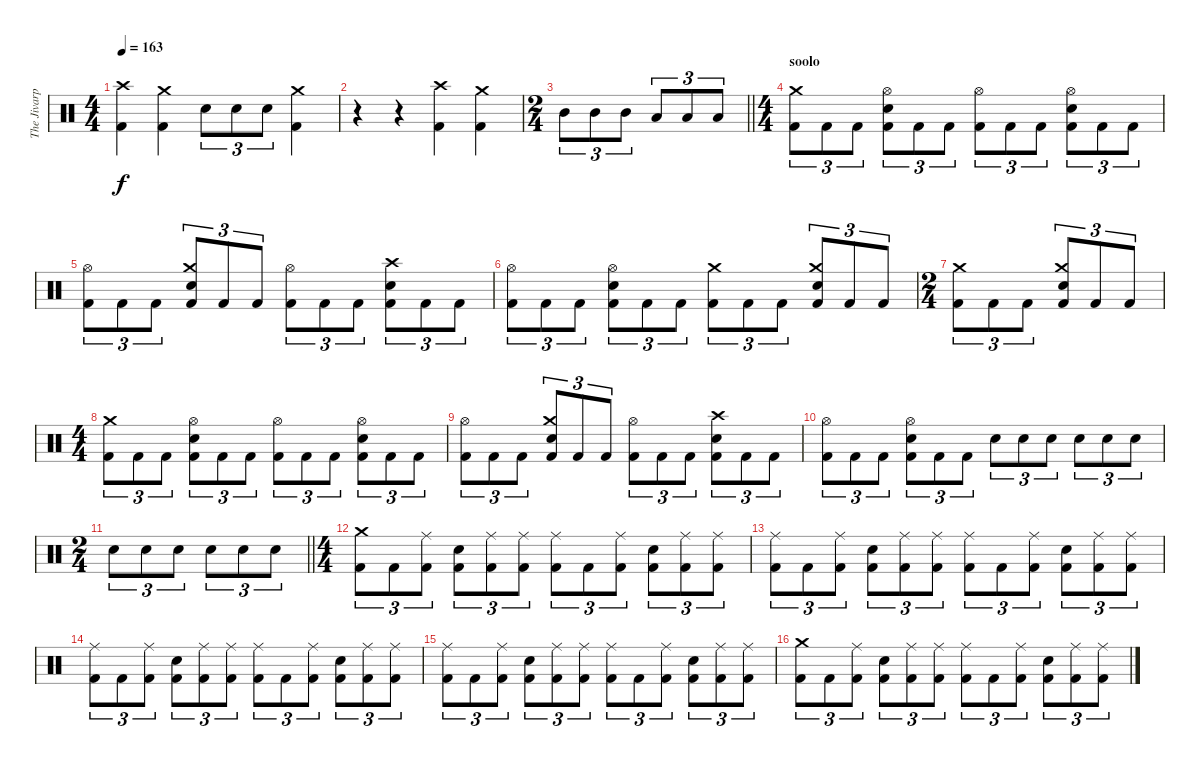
\track ("The Jivarp" "The Jivarp") {instrument percussion}
\staff {score}
\articulation defaults
\ts (4 4)
\tempo 163
\clef neutral
\ks c
("Crash high (hit)" "Kick (hit) 2").4{dy f} ("Crash medium (hit)" "Kick (hit) 2").4 "Electric Snare (hit)".8{tu (3 2)} "Electric Snare (hit)".8{tu (3 2)} "Electric Snare (hit)".8{tu (3 2)} ("Crash medium (hit)" "Kick (hit) 2").4 |
r.4 r.4 ("Crash high (hit)" "Kick (hit) 2").4 ("Crash medium (hit)" "Kick (hit) 2").4 |
\ts (2 4)
\barLineRight lightlight "Mid Tom (hit)".8{tu (3 2)} "Mid Tom (hit)".8{tu (3 2)} "Mid Tom (hit)".8{tu (3 2)} "Low Tom (hit)".8{tu (3 2)} "Low Tom (hit)".8{tu (3 2)} "Low Tom (hit)".8{tu (3 2)}
|
\ts (4 4)
\section ("" "soolo")
("Crash medium (hit)" "Kick (hit) 2").8{tu (3 2)} "Kick (hit) 2".8{tu (3 2)} "Kick (hit) 2".8{tu (3 2)} ("Hi-Hat (open)" "Electric Snare (hit)" "Kick (hit) 2").8{tu (3 2)} "Kick (hit) 2".8{tu (3 2)} "Kick (hit) 2".8{tu (3 2)} ("Hi-Hat (open)" "Kick (hit) 2").8{tu (3 2)} "Kick (hit) 2".8{tu (3 2)} "Kick (hit) 2".8{tu (3 2)} ("Hi-Hat (open)" "Electric Snare (hit)" "Kick (hit) 2").8{tu (3 2)} "Kick (hit) 2".8{tu (3 2)} "Kick (hit) 2".8{tu (3 2)} |
("Hi-Hat (open)" "Kick (hit) 2").8{tu (3 2)} "Kick (hit) 2".8{tu (3 2)} "Kick (hit) 2".8{tu (3 2)} ("Crash medium (hit)" "Electric Snare (hit)" "Kick (hit) 2").8{tu (3 2)} "Kick (hit) 2".8{tu (3 2)} "Kick (hit) 2".8{tu (3 2)} ("Hi-Hat (open)" "Kick (hit) 2").8{tu (3 2)} "Kick (hit) 2".8{tu (3 2)} "Kick (hit) 2".8{tu (3 2)} ("Crash high (hit)" "Electric Snare (hit)" "Kick (hit) 2").8{tu (3 2)} "Kick (hit) 2".8{tu (3 2)} "Kick (hit) 2".8{tu (3 2)} |
("Hi-Hat (open)" "Kick (hit) 2").8{tu (3 2)} "Kick (hit) 2".8{tu (3 2)} "Kick (hit) 2".8{tu (3 2)} ("Hi-Hat (open)" "Electric Snare (hit)" "Kick (hit) 2").8{tu (3 2)} "Kick (hit) 2".8{tu (3 2)} "Kick (hit) 2".8{tu (3 2)} ("Crash medium (hit)" "Kick (hit) 2").8{tu (3 2)} "Kick (hit) 2".8{tu (3 2)} "Kick (hit) 2".8{tu (3 2)} ("Crash medium (hit)" "Electric Snare (hit)" "Kick (hit) 2").8{tu (3 2)} "Kick (hit) 2".8{tu (3 2)} "Kick (hit) 2".8{tu (3 2)} |
\ts (2 4)
("Crash medium (hit)" "Kick (hit) 2").8{tu (3 2)} "Kick (hit) 2".8{tu (3 2)} "Kick (hit) 2".8{tu (3 2)} ("Crash medium (hit)" "Electric Snare (hit)" "Kick (hit) 2").8{tu (3 2)} "Kick (hit) 2".8{tu (3 2)} "Kick (hit) 2".8{tu (3 2)} |
\ts (4 4)
("Crash medium (hit)" "Kick (hit) 2").8{tu (3 2)} "Kick (hit) 2".8{tu (3 2)} "Kick (hit) 2".8{tu (3 2)} ("Hi-Hat (open)" "Electric Snare (hit)" "Kick (hit) 2").8{tu (3 2)} "Kick (hit) 2".8{tu (3 2)} "Kick (hit) 2".8{tu (3 2)} ("Hi-Hat (open)" "Kick (hit) 2").8{tu (3 2)} "Kick (hit) 2".8{tu (3 2)} "Kick (hit) 2".8{tu (3 2)} ("Hi-Hat (open)" "Electric Snare (hit)" "Kick (hit) 2").8{tu (3 2)} "Kick (hit) 2".8{tu (3 2)} "Kick (hit) 2".8{tu (3 2)} |
("Hi-Hat (open)" "Kick (hit) 2").8{tu (3 2)} "Kick (hit) 2".8{tu (3 2)} "Kick (hit) 2".8{tu (3 2)} ("Crash medium (hit)" "Electric Snare (hit)" "Kick (hit) 2").8{tu (3 2)} "Kick (hit) 2".8{tu (3 2)} "Kick (hit) 2".8{tu (3 2)} ("Hi-Hat (open)" "Kick (hit) 2").8{tu (3 2)} "Kick (hit) 2".8{tu (3 2)} "Kick (hit) 2".8{tu (3 2)} ("Crash high (hit)" "Electric Snare (hit)" "Kick (hit) 2").8{tu (3 2)} "Kick (hit) 2".8{tu (3 2)} "Kick (hit) 2".8{tu (3 2)} |
("Hi-Hat (open)" "Kick (hit) 2").8{tu (3 2)} "Kick (hit) 2".8{tu (3 2)} "Kick (hit) 2".8{tu (3 2)} ("Hi-Hat (open)" "Electric Snare (hit)" "Kick (hit) 2").8{tu (3 2)} "Kick (hit) 2".8{tu (3 2)} "Kick (hit) 2".8{tu (3 2)} "Electric Snare (hit)".8{tu (3 2)} "Electric Snare (hit)".8{tu (3 2)} "Electric Snare (hit)".8{tu (3 2)} "Electric Snare (hit)".8{tu (3 2)} "Electric Snare (hit)".8{tu (3 2)} "Electric Snare (hit)".8{tu (3 2)} |
\ts (2 4)
\barLineRight lightlight "Electric Snare (hit)".8{tu (3 2)} "Electric Snare (hit)".8{tu (3 2)} "Electric Snare (hit)".8{tu (3 2)} "Electric Snare (hit)".8{tu (3 2)} "Electric Snare (hit)".8{tu (3 2)} "Electric Snare (hit)".8{tu (3 2)}
|
\ts (4 4)
("Crash medium (hit)" "Kick (hit) 2").8{tu (3 2)} "Kick (hit) 2".8{tu (3 2)} ("Ride (middle)" "Kick (hit) 2").8{tu (3 2)} ("Electric Snare (hit)" "Kick (hit) 2").8{tu (3 2)} ("Ride (middle)" "Kick (hit) 2").8{tu (3 2)} ("Ride (middle)" "Kick (hit) 2").8{tu (3 2)} ("Ride (middle)" "Kick (hit) 2").8{tu (3 2)} "Kick (hit) 2".8{tu (3 2)} ("Ride (middle)" "Kick (hit) 2").8{tu (3 2)} ("Electric Snare (hit)" "Kick (hit) 2").8{tu (3 2)} ("Ride (middle)" "Kick (hit) 2").8{tu (3 2)} ("Ride (middle)" "Kick (hit) 2").8{tu (3 2)} |
("Ride (middle)" "Kick (hit) 2").8{tu (3 2)} "Kick (hit) 2".8{tu (3 2)} ("Ride (middle)" "Kick (hit) 2").8{tu (3 2)} ("Electric Snare (hit)" "Kick (hit) 2").8{tu (3 2)} ("Ride (middle)" "Kick (hit) 2").8{tu (3 2)} ("Ride (middle)" "Kick (hit) 2").8{tu (3 2)} ("Ride (middle)" "Kick (hit) 2").8{tu (3 2)} "Kick (hit) 2".8{tu (3 2)} ("Ride (middle)" "Kick (hit) 2").8{tu (3 2)} ("Electric Snare (hit)" "Kick (hit) 2").8{tu (3 2)} ("Ride (middle)" "Kick (hit) 2").8{tu (3 2)} ("Ride (middle)" "Kick (hit) 2").8{tu (3 2)} |
("Ride (middle)" "Kick (hit) 2").8{tu (3 2)} "Kick (hit) 2".8{tu (3 2)} ("Ride (middle)" "Kick (hit) 2").8{tu (3 2)} ("Electric Snare (hit)" "Kick (hit) 2").8{tu (3 2)} ("Ride (middle)" "Kick (hit) 2").8{tu (3 2)} ("Ride (middle)" "Kick (hit) 2").8{tu (3 2)} ("Ride (middle)" "Kick (hit) 2").8{tu (3 2)} "Kick (hit) 2".8{tu (3 2)} ("Ride (middle)" "Kick (hit) 2").8{tu (3 2)} ("Electric Snare (hit)" "Kick (hit) 2").8{tu (3 2)} ("Ride (middle)" "Kick (hit) 2").8{tu (3 2)} ("Ride (middle)" "Kick (hit) 2").8{tu (3 2)} |
("Ride (middle)" "Kick (hit) 2").8{tu (3 2)} "Kick (hit) 2".8{tu (3 2)} ("Ride (middle)" "Kick (hit) 2").8{tu (3 2)} ("Electric Snare (hit)" "Kick (hit) 2").8{tu (3 2)} ("Ride (middle)" "Kick (hit) 2").8{tu (3 2)} ("Ride (middle)" "Kick (hit) 2").8{tu (3 2)} ("Ride (middle)" "Kick (hit) 2").8{tu (3 2)} "Kick (hit) 2".8{tu (3 2)} ("Ride (middle)" "Kick (hit) 2").8{tu (3 2)} ("Electric Snare (hit)" "Kick (hit) 2").8{tu (3 2)} ("Ride (middle)" "Kick (hit) 2").8{tu (3 2)} ("Ride (middle)" "Kick (hit) 2").8{tu (3 2)} |
("Crash medium (hit)" "Kick (hit) 2").8{tu (3 2)} "Kick (hit) 2".8{tu (3 2)} ("Ride (middle)" "Kick (hit) 2").8{tu (3 2)} ("Electric Snare (hit)" "Kick (hit) 2").8{tu (3 2)} ("Ride (middle)" "Kick (hit) 2").8{tu (3 2)} ("Ride (middle)" "Kick (hit) 2").8{tu (3 2)} ("Ride (middle)" "Kick (hit) 2").8{tu (3 2)} "Kick (hit) 2".8{tu (3 2)} ("Ride (middle)" "Kick (hit) 2").8{tu (3 2)} ("Electric Snare (hit)" "Kick (hit) 2").8{tu (3 2)} ("Ride (middle)" "Kick (hit) 2").8{tu (3 2)} ("Ride (middle)" "Kick (hit) 2").8{tu (3 2)}
